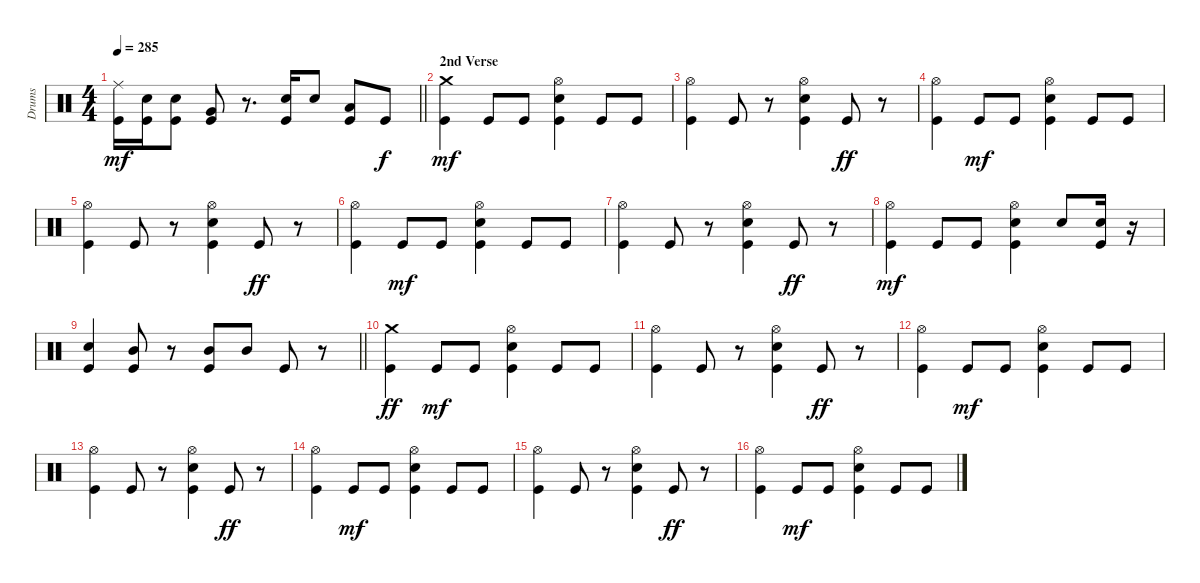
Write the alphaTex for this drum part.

\track ("Drums" "Drums") {instrument percussion}
\staff {score}
\articulation defaults
\ts (4 4)
\tempo 285
\clef neutral
\barLineRight lightlight
\ks c
("Ride (middle)" "Kick (hit)").16{dy mf} ("Snare (hit) 2" "Kick (hit)").16 ("Snare (hit) 2" "Kick (hit)").8 ("Very Low Tom (hit)" "Kick (hit)").8 r.8{d} ("Snare (hit) 2" "Kick (hit)").16 "Snare (hit) 2".8 ("Low Tom (hit)" "Kick (hit)").8 "Kick (hit)".8{dy f} |
\section ("" "2nd Verse")
("Crash medium (hit)" "Kick (hit)").4{dy mf} "Kick (hit)".8 "Kick (hit)".8 ("Hi-Hat (open)" "Snare (hit) 2" "Kick (hit)").4 "Kick (hit)".8 "Kick (hit)".8 |
("Hi-Hat (open)" "Kick (hit)").4 "Kick (hit)".8 r.8 ("Hi-Hat (open)" "Snare (hit) 2" "Kick (hit)").4 "Kick (hit)".8{dy ff} r.8 |
("Hi-Hat (open)" "Kick (hit)").4 "Kick (hit)".8{dy mf} "Kick (hit)".8 ("Hi-Hat (open)" "Snare (hit) 2" "Kick (hit)").4 "Kick (hit)".8 "Kick (hit)".8 |
("Hi-Hat (open)" "Kick (hit)").4 "Kick (hit)".8 r.8 ("Hi-Hat (open)" "Snare (hit) 2" "Kick (hit)").4 "Kick (hit)".8{dy ff} r.8 |
("Hi-Hat (open)" "Kick (hit)").4 "Kick (hit)".8{dy mf} "Kick (hit)".8 ("Hi-Hat (open)" "Snare (hit) 2" "Kick (hit)").4 "Kick (hit)".8 "Kick (hit)".8 |
("Hi-Hat (open)" "Kick (hit)").4 "Kick (hit)".8 r.8 ("Hi-Hat (open)" "Snare (hit) 2" "Kick (hit)").4 "Kick (hit)".8{dy ff} r.8 |
("Hi-Hat (open)" "Kick (hit)").4{dy mf} "Kick (hit)".8 "Kick (hit)".8 ("Hi-Hat (open)" "Snare (hit) 2" "Kick (hit)").4 "Snare (hit) 2".8 ("Snare (hit) 2" "Kick (hit)").16 r.16 |
\barLineRight lightlight
("Snare (hit) 2" "Kick (hit)").4 ("Mid Tom (hit)" "Kick (hit)").8 r.8 ("Mid Tom (hit)" "Kick (hit)").8 "Mid Tom (hit)".8 "Kick (hit)".8 r.8 |
("Crash medium (hit)" "Kick (hit)").4{dy ff} "Kick (hit)".8{dy mf} "Kick (hit)".8 ("Hi-Hat (open)" "Snare (hit) 2" "Kick (hit)").4 "Kick (hit)".8 "Kick (hit)".8 |
("Hi-Hat (open)" "Kick (hit)").4 "Kick (hit)".8 r.8 ("Hi-Hat (open)" "Snare (hit) 2" "Kick (hit)").4 "Kick (hit)".8{dy ff} r.8 |
("Hi-Hat (open)" "Kick (hit)").4 "Kick (hit)".8{dy mf} "Kick (hit)".8 ("Hi-Hat (open)" "Snare (hit) 2" "Kick (hit)").4 "Kick (hit)".8 "Kick (hit)".8 |
("Hi-Hat (open)" "Kick (hit)").4 "Kick (hit)".8 r.8 ("Hi-Hat (open)" "Snare (hit) 2" "Kick (hit)").4 "Kick (hit)".8{dy ff} r.8 |
("Hi-Hat (open)" "Kick (hit)").4 "Kick (hit)".8{dy mf} "Kick (hit)".8 ("Hi-Hat (open)" "Snare (hit) 2" "Kick (hit)").4 "Kick (hit)".8 "Kick (hit)".8 |
("Hi-Hat (open)" "Kick (hit)").4 "Kick (hit)".8 r.8 ("Hi-Hat (open)" "Snare (hit) 2" "Kick (hit)").4 "Kick (hit)".8{dy ff} r.8 |
("Hi-Hat (open)" "Kick (hit)").4 "Kick (hit)".8{dy mf} "Kick (hit)".8 ("Hi-Hat (open)" "Snare (hit) 2" "Kick (hit)").4 "Kick (hit)".8 "Kick (hit)".8
